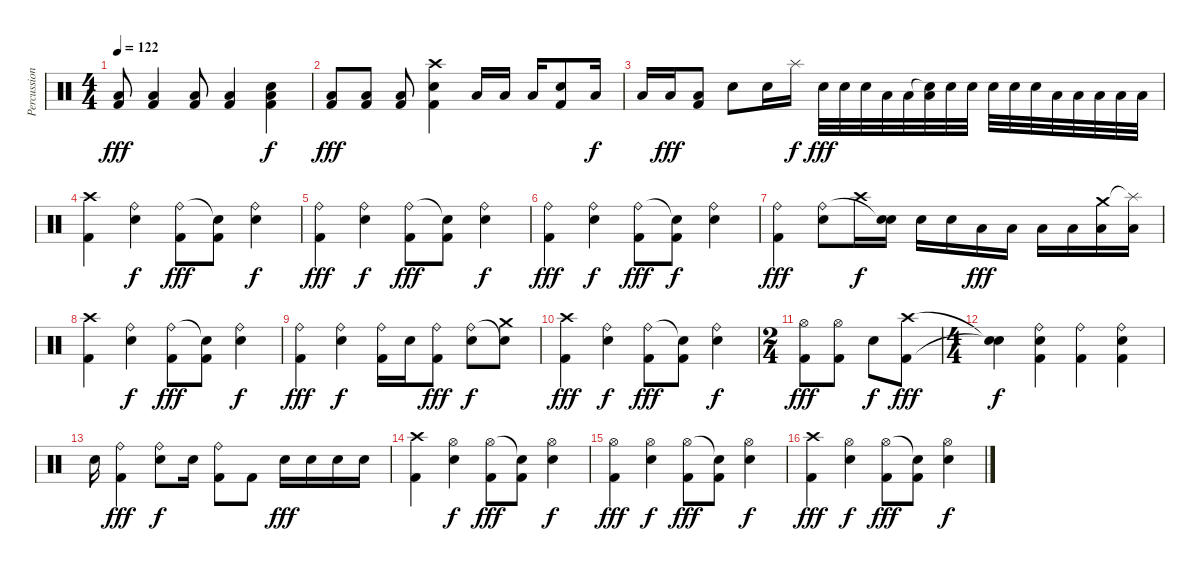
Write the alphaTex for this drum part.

\track ("Percussions" "Percussion") {instrument percussion}
\staff {score}
\articulation defaults
\ts (4 4)
\tempo 122
\clef neutral
\ks c
("Low Tom (hit)" "Kick (hit) 2").8{dy fff} ("Low Tom (hit)" "Kick (hit) 2").4 ("Low Tom (hit)" "Kick (hit) 2").8 ("Low Tom (hit)" "Kick (hit) 2").4 ("Snare (hit) 2" "Low Tom (hit)" "Kick (hit) 2").4{dy f} |
("Low Tom (hit)" "Kick (hit) 2").8{dy fff} ("Low Tom (hit)" "Kick (hit) 2").8 ("Low Tom (hit)" "Kick (hit) 2").8 ("Crash high (hit)" "Snare (hit) 2" "Kick (hit) 2").4 "Low Tom (hit)".16 "Low Tom (hit)".16 "Low Tom (hit)".16 ("Electric Snare (hit)" "Kick (hit) 2").8 "Low Tom (hit)".16{dy f} |
"Low Tom (hit)".16 "Low Tom (hit)".16{dy fff} ("Low Floor Tom (hit)" "Kick (hit) 2").8 "Electric Snare (hit)".8 "Electric Snare (hit)".16 "Splash (hit)".16{dy f} "Snare (hit) 2".32{dy fff} "Snare (hit) 2".32 "Snare (hit) 2".32 "Low Tom (hit)".32 "Low Tom (hit)".32 ("Snare (hit)"{t} "Low Tom (hit)").32 "Snare (hit) 2".32 "Snare (hit) 2".32 "Snare (hit) 2".32 "Snare (hit) 2".32 "Snare (hit) 2".32 "Low Floor Tom (hit)".32 "Low Floor Tom (hit)".32 "Low Floor Tom (hit)".32 "Low Floor Tom (hit)".32 "Low Floor Tom (hit)".32 |
("Crash high (hit)" "Kick (hit) 2").4 ("Snare (hit) 2" "Ride (bell)").4{dy f} ("Kick (hit) 2" "Ride (bell)").8{dy fff} ("Kick (hit) 2" "Snare (hit)"{t}).8 ("Snare (hit) 2" "Ride (bell)").4{dy f} |
("Kick (hit) 2" "Ride (bell)").4{dy fff} ("Snare (hit) 2" "Ride (bell)").4{dy f} ("Kick (hit) 2" "Ride (bell)").8{dy fff} ("Kick (hit) 2" "Snare (hit)"{t}).8 ("Snare (hit) 2" "Ride (bell)").4{dy f} |
("Kick (hit) 2" "Ride (bell)").4{dy fff} ("Snare (hit) 2" "Ride (bell)").4{dy f} ("Kick (hit) 2" "Ride (bell)").8{dy fff} ("Kick (hit) 2" "Snare (hit)"{t}).8{dy f} ("Snare (hit) 2" "Ride (bell)").4 |
("Kick (hit) 2" "Ride (bell)").4{dy fff} ("Snare (hit) 2" "Ride (bell)").8 "Crash high (hit)".16{dy f} ("Snare (hit) 2" "Snare (hit)"{t}).16 "Snare (hit) 2".16 "Snare (hit) 2".16 "Low Tom (hit)".16{dy fff} "Low Tom (hit)".16 "Low Tom (hit)".16 "Low Floor Tom (hit)".16 ("Crash medium (hit)" "Low Floor Tom (hit)").16 ("Splash (hit)"{t} "Low Floor Tom (hit)").16 |
("Crash high (hit)" "Kick (hit) 2").4 ("Snare (hit) 2" "Ride (bell)").4{dy f} ("Kick (hit) 2" "Ride (bell)").8{dy fff} ("Kick (hit) 2" "Snare (hit)"{t}).8 ("Snare (hit) 2" "Ride (bell)").4{dy f} |
("Kick (hit) 2" "Ride (bell)").4{dy fff} ("Snare (hit) 2" "Ride (bell)").4{dy f} ("Kick (hit) 2" "Ride (bell)").16 "Snare (hit) 2".16 ("Kick (hit) 2" "Ride (bell)").8{dy fff} ("Snare (hit) 2" "Ride (bell)").8{dy f} ("Crash medium (hit)" "Snare (hit)"{t}).8 |
("Crash high (hit)" "Kick (hit) 2").4{dy fff} ("Snare (hit) 2" "Ride (bell)").4{dy f} ("Kick (hit) 2" "Ride (bell)").8{dy fff} ("Kick (hit) 2" "Snare (hit)"{t}).8 ("Snare (hit) 2" "Ride (bell)").4{dy f} |
\ts (2 4)
("Kick (hit) 2" "Hi-Hat (open)").8{dy fff} ("Kick (hit) 2" "Hi-Hat (open)").8 "Snare (hit) 2".8{dy f} ("Crash high (hit)" "Kick (hit) 2").8{dy fff} |
\ts (4 4)
("Snare (hit)"{t} "Snare (hit)"{t}).4{dy f} ("Snare (hit) 2" "Kick (hit) 2" "Ride (bell)").4 ("Kick (hit) 2" "Ride (bell)").4 ("Snare (hit) 2" "Kick (hit) 2" "Ride (bell)").4 |
"Snare (hit) 2".16 ("Kick (hit) 2" "Ride (bell)").4{dy fff} ("Snare (hit) 2" "Ride (bell)").8{dy f} "Snare (hit) 2".16 ("Kick (hit) 2" "Ride (bell)").8 "Kick (hit) 2".8 "Snare (hit) 2".16{dy fff} "Snare (hit) 2".16 "Snare (hit) 2".16 "Snare (hit) 2".16 |
("Crash high (hit)" "Kick (hit) 2").4 ("Snare (hit) 2" "Hi-Hat (open)").4{dy f} ("Kick (hit) 2" "Hi-Hat (open)").8{dy fff} ("Kick (hit) 2" "Snare (hit)"{t}).8 ("Snare (hit) 2" "Hi-Hat (open)").4{dy f} |
("Kick (hit) 2" "Hi-Hat (open)").4{dy fff} ("Snare (hit) 2" "Hi-Hat (open)").4{dy f} ("Kick (hit) 2" "Hi-Hat (open)").8{dy fff} ("Kick (hit) 2" "Snare (hit)"{t}).8 ("Snare (hit) 2" "Hi-Hat (open)").4{dy f} |
("Crash high (hit)" "Kick (hit) 2").4{dy fff} ("Snare (hit) 2" "Hi-Hat (open)").4{dy f} ("Kick (hit) 2" "Hi-Hat (open)").8{dy fff} ("Kick (hit) 2" "Snare (hit)"{t}).8 ("Snare (hit) 2" "Hi-Hat (open)").4{dy f}
